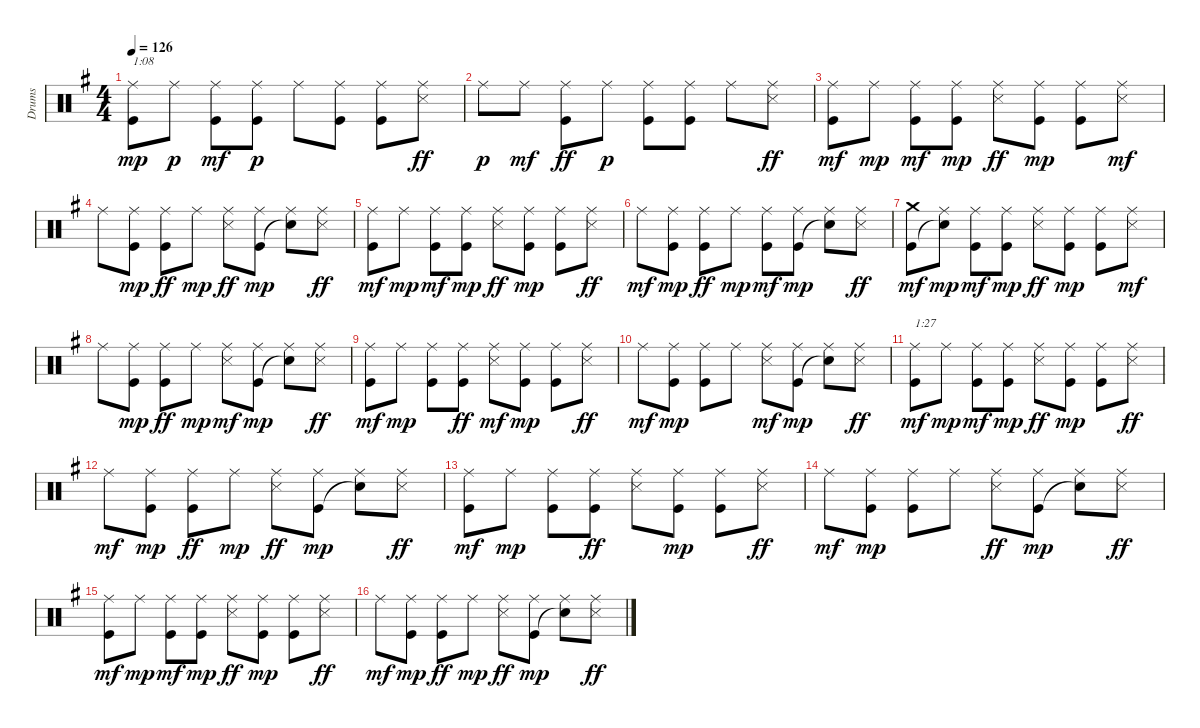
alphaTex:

\track ("Drums" "Drums") {instrument percussion}
\staff {score}
\articulation defaults
\ts (4 4)
\tempo 126
\clef neutral
\ks g
("Ride (middle)" "Kick (hit)").8{txt "1:08" dy mp} "Ride (middle)".8{dy p} ("Ride (middle)" "Kick (hit)").8{dy mf} ("Ride (middle)" "Kick (hit)").8{dy p} "Ride (middle)".8 ("Ride (middle)" "Kick (hit)").8 ("Ride (middle)" "Kick (hit)").8 ("Ride (middle)" "Snare (side stick) 3").8{dy ff} |
"Ride (middle)".8{dy p} "Ride (middle)".8{dy mf} ("Ride (middle)" "Kick (hit)").8{dy ff} "Ride (middle)".8{dy p} ("Ride (middle)" "Kick (hit)").8 ("Ride (middle)" "Kick (hit)").8 "Ride (middle)".8 ("Ride (middle)" "Snare (side stick) 3").8{dy ff} |
("Ride (middle)" "Kick (hit)").8{dy mf} "Ride (middle)".8{dy mp} ("Ride (middle)" "Kick (hit)").8{dy mf} ("Ride (middle)" "Kick (hit)").8{dy mp} ("Ride (middle)" "Snare (side stick) 3").8{dy ff} ("Ride (middle)" "Kick (hit)").8{dy mp} ("Ride (middle)" "Kick (hit)").8 ("Ride (middle)" "Snare (side stick) 3").8{dy mf} |
"Ride (middle)".8 ("Ride (middle)" "Kick (hit)").8{dy mp} ("Ride (middle)" "Kick (hit)").8{dy ff} "Ride (middle)".8{dy mp} ("Ride (middle)" "Snare (side stick) 3").8{dy ff} ("Ride (middle)" "Kick (hit)").8{dy mp} ("Ride (middle)" "Snare (hit)"{t}).8 ("Ride (middle)" "Snare (side stick) 3").8{dy ff} |
("Ride (middle)" "Kick (hit)").8{dy mf} "Ride (middle)".8{dy mp} ("Ride (middle)" "Kick (hit)").8{dy mf} ("Ride (middle)" "Kick (hit)").8{dy mp} ("Ride (middle)" "Snare (side stick) 3").8{dy ff} ("Ride (middle)" "Kick (hit)").8{dy mp} ("Ride (middle)" "Kick (hit)").8 ("Ride (middle)" "Snare (side stick) 3").8{dy ff} |
"Ride (middle)".8{dy mf} ("Ride (middle)" "Kick (hit)").8{dy mp} ("Ride (middle)" "Kick (hit)").8{dy ff} "Ride (middle)".8{dy mp} ("Ride (middle)" "Kick (hit)").8{dy mf} ("Ride (middle)" "Kick (hit)").8{dy mp} ("Ride (middle)" "Snare (hit)"{t}).8 ("Ride (middle)" "Snare (side stick) 3").8{dy ff} |
("Crash medium (hit)" "Kick (hit)").8{dy mf} ("Ride (middle)" "Snare (hit)"{t}).8{dy mp} ("Ride (middle)" "Kick (hit)").8{dy mf} ("Ride (middle)" "Kick (hit)").8{dy mp} ("Ride (middle)" "Snare (side stick) 3").8{dy ff} ("Ride (middle)" "Kick (hit)").8{dy mp} ("Ride (middle)" "Kick (hit)").8 ("Ride (middle)" "Snare (side stick) 3").8{dy mf} |
"Ride (middle)".8 ("Ride (middle)" "Kick (hit)").8{dy mp} ("Ride (middle)" "Kick (hit)").8{dy ff} "Ride (middle)".8{dy mp} ("Ride (middle)" "Snare (side stick) 3").8{dy mf} ("Ride (middle)" "Kick (hit)").8{dy mp} ("Ride (middle)" "Snare (hit)"{t}).8 ("Ride (middle)" "Snare (side stick) 3").8{dy ff} |
("Ride (middle)" "Kick (hit)").8{dy mf} "Ride (middle)".8{dy mp} ("Ride (middle)" "Kick (hit)").8 ("Ride (middle)" "Kick (hit)").8{dy ff} ("Ride (middle)" "Snare (side stick) 3").8{dy mf} ("Ride (middle)" "Kick (hit)").8{dy mp} ("Ride (middle)" "Kick (hit)").8 ("Ride (middle)" "Snare (side stick) 3").8{dy ff} |
"Ride (middle)".8{dy mf} ("Ride (middle)" "Kick (hit)").8{dy mp} ("Ride (middle)" "Kick (hit)").8 "Ride (middle)".8 ("Ride (middle)" "Snare (side stick) 3").8{dy mf} ("Ride (middle)" "Kick (hit)").8{dy mp} ("Ride (middle)" "Snare (hit)"{t}).8 ("Ride (middle)" "Snare (side stick) 3").8{dy ff} |
("Ride (middle)" "Kick (hit)").8{txt "1:27" dy mf} "Ride (middle)".8{dy mp} ("Ride (middle)" "Kick (hit)").8{dy mf} ("Ride (middle)" "Kick (hit)").8{dy mp} ("Ride (middle)" "Snare (side stick) 3").8{dy ff} ("Ride (middle)" "Kick (hit)").8{dy mp} ("Ride (middle)" "Kick (hit)").8 ("Ride (middle)" "Snare (side stick) 3").8{dy ff} |
"Ride (middle)".8{dy mf} ("Ride (middle)" "Kick (hit)").8{dy mp} ("Ride (middle)" "Kick (hit)").8{dy ff} "Ride (middle)".8{dy mp} ("Ride (middle)" "Snare (side stick) 3").8{dy ff} ("Ride (middle)" "Kick (hit)").8{dy mp} ("Ride (middle)" "Snare (hit)"{t}).8 ("Ride (middle)" "Snare (side stick) 3").8{dy ff} |
("Ride (middle)" "Kick (hit)").8{dy mf} "Ride (middle)".8{dy mp} ("Ride (middle)" "Kick (hit)").8 ("Ride (middle)" "Kick (hit)").8{dy ff} ("Ride (middle)" "Snare (side stick) 3").8 ("Ride (middle)" "Kick (hit)").8{dy mp} ("Ride (middle)" "Kick (hit)").8 ("Ride (middle)" "Snare (side stick) 3").8{dy ff} |
"Ride (middle)".8{dy mf} ("Ride (middle)" "Kick (hit)").8{dy mp} ("Ride (middle)" "Kick (hit)").8 "Ride (middle)".8 ("Ride (middle)" "Snare (side stick) 3").8{dy ff} ("Ride (middle)" "Kick (hit)").8{dy mp} ("Ride (middle)" "Snare (hit)"{t}).8 ("Ride (middle)" "Snare (side stick) 3").8{dy ff} |
("Ride (middle)" "Kick (hit)").8{dy mf} "Ride (middle)".8{dy mp} ("Ride (middle)" "Kick (hit)").8{dy mf} ("Ride (middle)" "Kick (hit)").8{dy mp} ("Ride (middle)" "Snare (side stick) 3").8{dy ff} ("Ride (middle)" "Kick (hit)").8{dy mp} ("Ride (middle)" "Kick (hit)").8 ("Ride (middle)" "Snare (side stick) 3").8{dy ff} |
"Ride (middle)".8{dy mf} ("Ride (middle)" "Kick (hit)").8{dy mp} ("Ride (middle)" "Kick (hit)").8{dy ff} "Ride (middle)".8{dy mp} ("Ride (middle)" "Snare (side stick) 3").8{dy ff} ("Ride (middle)" "Kick (hit)").8{dy mp} ("Ride (middle)" "Snare (hit)"{t}).8 ("Ride (middle)" "Snare (side stick) 3").8{dy ff}
